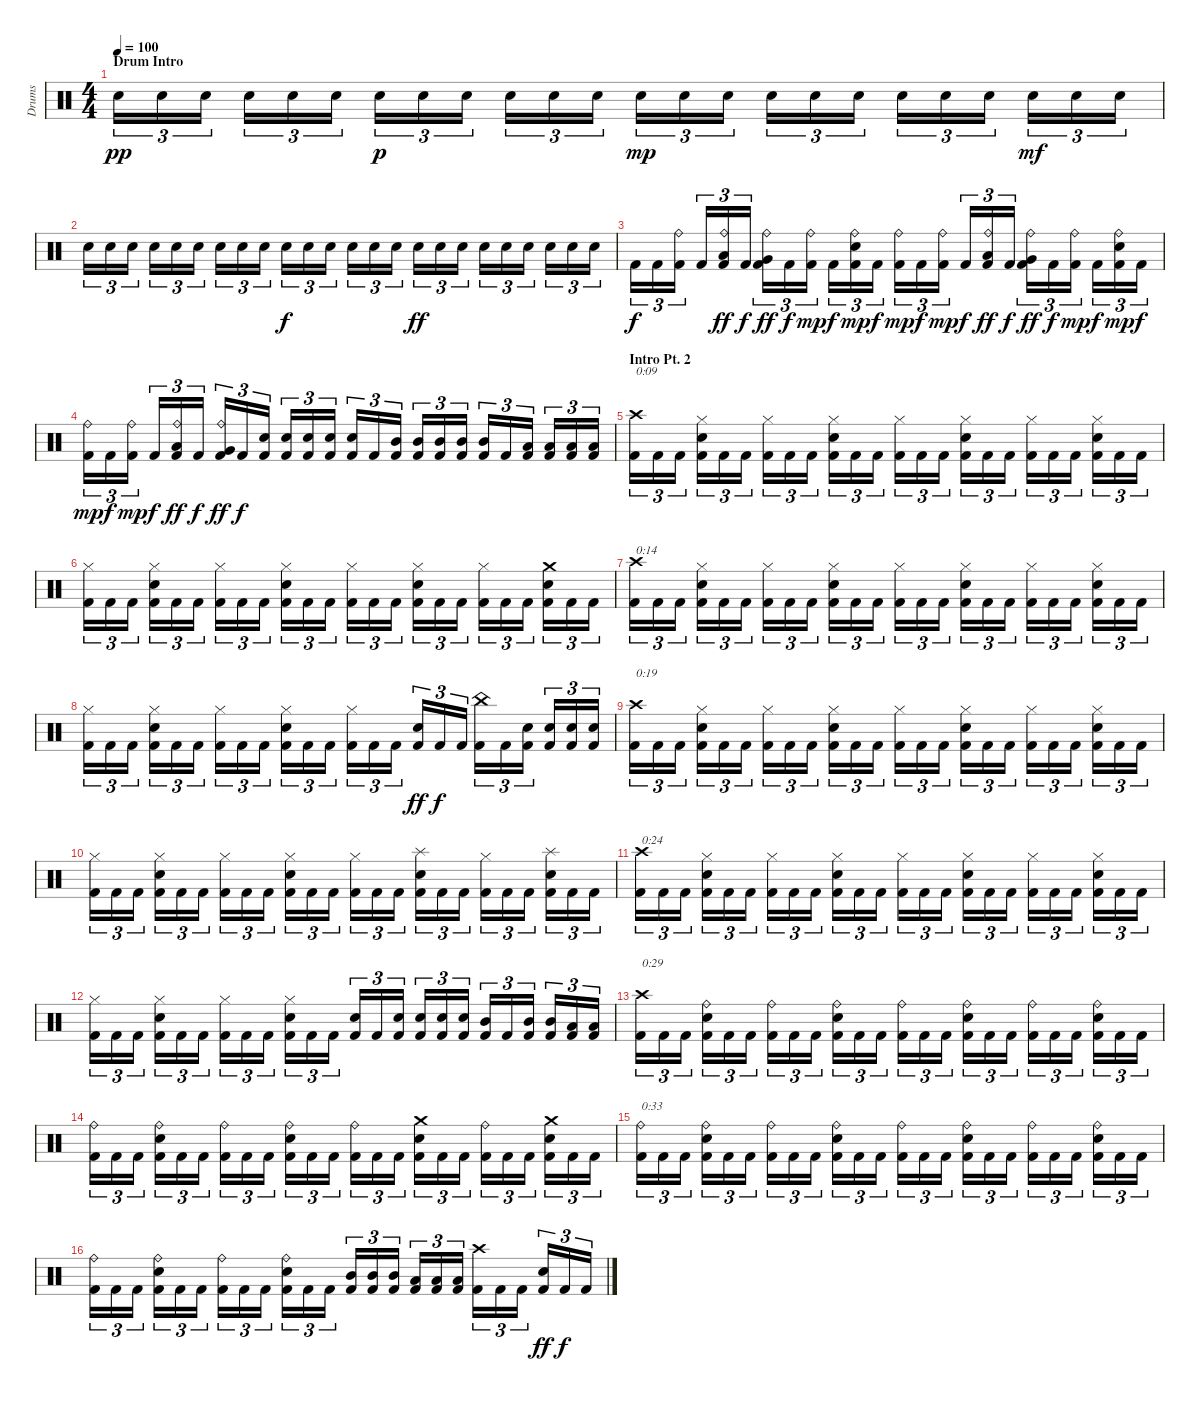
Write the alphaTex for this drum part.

\track ("Drums" "Drums") {instrument percussion}
\staff {score}
\articulation defaults
\ts (4 4)
\section ("" "Drum Intro")
\tempo 100
\clef neutral
\ks c "Snare (hit) 2".16{tu (3 2) dy pp} "Snare (hit) 2".16{tu (3 2)} "Snare (hit) 2".16{tu (3 2)} "Snare (hit) 2".16{tu (3 2)} "Snare (hit) 2".16{tu (3 2)} "Snare (hit) 2".16{tu (3 2)} "Snare (hit) 2".16{tu (3 2) dy p} "Snare (hit) 2".16{tu (3 2)} "Snare (hit) 2".16{tu (3 2)} "Snare (hit) 2".16{tu (3 2)} "Snare (hit) 2".16{tu (3 2)} "Snare (hit) 2".16{tu (3 2)} "Snare (hit) 2".16{tu (3 2) dy mp} "Snare (hit) 2".16{tu (3 2)} "Snare (hit) 2".16{tu (3 2)} "Snare (hit) 2".16{tu (3 2)} "Snare (hit) 2".16{tu (3 2)} "Snare (hit) 2".16{tu (3 2)} "Snare (hit) 2".16{tu (3 2)} "Snare (hit) 2".16{tu (3 2)} "Snare (hit) 2".16{tu (3 2)} "Snare (hit) 2".16{tu (3 2) dy mf} "Snare (hit) 2".16{tu (3 2)} "Snare (hit) 2".16{tu (3 2)}
|
"Snare (hit) 2".16{tu (3 2)} "Snare (hit) 2".16{tu (3 2)} "Snare (hit) 2".16{tu (3 2)} "Snare (hit) 2".16{tu (3 2)} "Snare (hit) 2".16{tu (3 2)} "Snare (hit) 2".16{tu (3 2)} "Snare (hit) 2".16{tu (3 2)} "Snare (hit) 2".16{tu (3 2)} "Snare (hit) 2".16{tu (3 2)} "Snare (hit) 2".16{tu (3 2) dy f} "Snare (hit) 2".16{tu (3 2)} "Snare (hit) 2".16{tu (3 2)} "Snare (hit) 2".16{tu (3 2)} "Snare (hit) 2".16{tu (3 2)} "Snare (hit) 2".16{tu (3 2)} "Snare (hit) 2".16{tu (3 2) dy ff} "Snare (hit) 2".16{tu (3 2)} "Snare (hit) 2".16{tu (3 2)} "Snare (hit) 2".16{tu (3 2)} "Snare (hit) 2".16{tu (3 2)} "Snare (hit) 2".16{tu (3 2)} "Snare (hit) 2".16{tu (3 2)} "Snare (hit) 2".16{tu (3 2)} "Snare (hit) 2".16{tu (3 2)} |
"Kick (hit) 2".16{tu (3 2) dy f} "Kick (hit) 2".16{tu (3 2)} ("Ride (bell)" "Kick (hit) 2").16{tu (3 2)} "Kick (hit) 2".16{tu (3 2)} ("Ride (bell)" "Low Tom (hit)" "Kick (hit) 2").16{tu (3 2) dy ff} "Kick (hit) 2".16{tu (3 2) dy f} ("Ride (bell)" "Very Low Tom (hit)" "Kick (hit) 2").16{tu (3 2) dy ff} "Kick (hit) 2".16{tu (3 2) dy f} ("Ride (bell)" "Kick (hit) 2").16{tu (3 2) dy mp} "Kick (hit) 2".16{tu (3 2) dy f} ("Ride (bell)" "Snare (hit) 2" "Kick (hit) 2").16{tu (3 2) dy mp} "Kick (hit) 2".16{tu (3 2) dy f} ("Ride (bell)" "Kick (hit) 2").16{tu (3 2) dy mp} "Kick (hit) 2".16{tu (3 2) dy f} ("Ride (bell)" "Kick (hit) 2").16{tu (3 2) dy mp} "Kick (hit) 2".16{tu (3 2) dy f} ("Ride (bell)" "Low Tom (hit)" "Kick (hit) 2").16{tu (3 2) dy ff} "Kick (hit) 2".16{tu (3 2) dy f} ("Ride (bell)" "Very Low Tom (hit)" "Kick (hit) 2").16{tu (3 2) dy ff} "Kick (hit) 2".16{tu (3 2) dy f} ("Ride (bell)" "Kick (hit) 2").16{tu (3 2) dy mp} "Kick (hit) 2".16{tu (3 2) dy f} ("Ride (bell)" "Snare (hit) 2" "Kick (hit) 2").16{tu (3 2) dy mp} "Kick (hit) 2".16{tu (3 2) dy f} |
("Ride (bell)" "Kick (hit) 2").16{tu (3 2) dy mp} "Kick (hit) 2".16{tu (3 2) dy f} ("Ride (bell)" "Kick (hit) 2").16{tu (3 2) dy mp} "Kick (hit) 2".16{tu (3 2) dy f} ("Ride (bell)" "Low Tom (hit)" "Kick (hit) 2").16{tu (3 2) dy ff} "Kick (hit) 2".16{tu (3 2) dy f} ("Ride (bell)" "Very Low Tom (hit)" "Kick (hit) 2").16{tu (3 2) dy ff} "Kick (hit) 2".16{tu (3 2) dy f} ("Snare (hit) 2" "Kick (hit) 2").16{tu (3 2)} ("Snare (hit) 2" "Kick (hit) 2").16{tu (3 2)} ("Snare (hit) 2" "Kick (hit) 2").16{tu (3 2)} ("Snare (hit) 2" "Kick (hit) 2").16{tu (3 2)} ("Snare (hit) 2" "Kick (hit) 2").16{tu (3 2)} "Kick (hit) 2".16{tu (3 2)} ("Mid Tom (hit)" "Kick (hit) 2").16{tu (3 2)} ("Mid Tom (hit)" "Kick (hit) 2").16{tu (3 2)} ("Mid Tom (hit)" "Kick (hit) 2").16{tu (3 2)} ("Mid Tom (hit)" "Kick (hit) 2").16{tu (3 2)} ("Mid Tom (hit)" "Kick (hit) 2").16{tu (3 2)} "Kick (hit) 2".16{tu (3 2)} ("Low Tom (hit)" "Kick (hit) 2").16{tu (3 2)} ("Low Tom (hit)" "Kick (hit) 2").16{tu (3 2)} ("Low Tom (hit)" "Kick (hit) 2").16{tu (3 2)} ("Low Tom (hit)" "Kick (hit) 2").16{tu (3 2)} |
\section ("" "Intro Pt. 2")
("Crash high (hit)" "Kick (hit) 2").16{tu (3 2) txt "0:09"} "Kick (hit) 2".16{tu (3 2)} "Kick (hit) 2".16{tu (3 2)} ("Hi-Hat (closed)" "Snare (hit) 2" "Kick (hit) 2").16{tu (3 2)} "Kick (hit) 2".16{tu (3 2)} "Kick (hit) 2".16{tu (3 2)} ("Hi-Hat (closed)" "Kick (hit) 2").16{tu (3 2)} "Kick (hit) 2".16{tu (3 2)} "Kick (hit) 2".16{tu (3 2)} ("Hi-Hat (closed)" "Snare (hit) 2" "Kick (hit) 2").16{tu (3 2)} "Kick (hit) 2".16{tu (3 2)} "Kick (hit) 2".16{tu (3 2)} ("Hi-Hat (closed)" "Kick (hit) 2").16{tu (3 2)} "Kick (hit) 2".16{tu (3 2)} "Kick (hit) 2".16{tu (3 2)} ("Hi-Hat (closed)" "Snare (hit) 2" "Kick (hit) 2").16{tu (3 2)} "Kick (hit) 2".16{tu (3 2)} "Kick (hit) 2".16{tu (3 2)} ("Hi-Hat (closed)" "Kick (hit) 2").16{tu (3 2)} "Kick (hit) 2".16{tu (3 2)} "Kick (hit) 2".16{tu (3 2)} ("Hi-Hat (closed)" "Snare (hit) 2" "Kick (hit) 2").16{tu (3 2)} "Kick (hit) 2".16{tu (3 2)} "Kick (hit) 2".16{tu (3 2)} |
("Hi-Hat (closed)" "Kick (hit) 2").16{tu (3 2)} "Kick (hit) 2".16{tu (3 2)} "Kick (hit) 2".16{tu (3 2)} ("Hi-Hat (closed)" "Snare (hit) 2" "Kick (hit) 2").16{tu (3 2)} "Kick (hit) 2".16{tu (3 2)} "Kick (hit) 2".16{tu (3 2)} ("Hi-Hat (closed)" "Kick (hit) 2").16{tu (3 2)} "Kick (hit) 2".16{tu (3 2)} "Kick (hit) 2".16{tu (3 2)} ("Hi-Hat (closed)" "Snare (hit) 2" "Kick (hit) 2").16{tu (3 2)} "Kick (hit) 2".16{tu (3 2)} "Kick (hit) 2".16{tu (3 2)} ("Hi-Hat (closed)" "Kick (hit) 2").16{tu (3 2)} "Kick (hit) 2".16{tu (3 2)} "Kick (hit) 2".16{tu (3 2)} ("Hi-Hat (closed)" "Snare (hit) 2" "Kick (hit) 2").16{tu (3 2)} "Kick (hit) 2".16{tu (3 2)} "Kick (hit) 2".16{tu (3 2)} ("Hi-Hat (closed)" "Kick (hit) 2").16{tu (3 2)} "Kick (hit) 2".16{tu (3 2)} "Kick (hit) 2".16{tu (3 2)} ("Crash medium (hit)" "Snare (hit) 2" "Kick (hit) 2").16{tu (3 2)} "Kick (hit) 2".16{tu (3 2)} "Kick (hit) 2".16{tu (3 2)} |
("Crash high (hit)" "Kick (hit) 2").16{tu (3 2) txt "0:14"} "Kick (hit) 2".16{tu (3 2)} "Kick (hit) 2".16{tu (3 2)} ("Hi-Hat (closed)" "Snare (hit) 2" "Kick (hit) 2").16{tu (3 2)} "Kick (hit) 2".16{tu (3 2)} "Kick (hit) 2".16{tu (3 2)} ("Hi-Hat (closed)" "Kick (hit) 2").16{tu (3 2)} "Kick (hit) 2".16{tu (3 2)} "Kick (hit) 2".16{tu (3 2)} ("Hi-Hat (closed)" "Snare (hit) 2" "Kick (hit) 2").16{tu (3 2)} "Kick (hit) 2".16{tu (3 2)} "Kick (hit) 2".16{tu (3 2)} ("Hi-Hat (closed)" "Kick (hit) 2").16{tu (3 2)} "Kick (hit) 2".16{tu (3 2)} "Kick (hit) 2".16{tu (3 2)} ("Hi-Hat (closed)" "Snare (hit) 2" "Kick (hit) 2").16{tu (3 2)} "Kick (hit) 2".16{tu (3 2)} "Kick (hit) 2".16{tu (3 2)} ("Hi-Hat (closed)" "Kick (hit) 2").16{tu (3 2)} "Kick (hit) 2".16{tu (3 2)} "Kick (hit) 2".16{tu (3 2)} ("Hi-Hat (closed)" "Snare (hit) 2" "Kick (hit) 2").16{tu (3 2)} "Kick (hit) 2".16{tu (3 2)} "Kick (hit) 2".16{tu (3 2)} |
("Hi-Hat (closed)" "Kick (hit) 2").16{tu (3 2)} "Kick (hit) 2".16{tu (3 2)} "Kick (hit) 2".16{tu (3 2)} ("Hi-Hat (closed)" "Snare (hit) 2" "Kick (hit) 2").16{tu (3 2)} "Kick (hit) 2".16{tu (3 2)} "Kick (hit) 2".16{tu (3 2)} ("Hi-Hat (closed)" "Kick (hit) 2").16{tu (3 2)} "Kick (hit) 2".16{tu (3 2)} "Kick (hit) 2".16{tu (3 2)} ("Hi-Hat (closed)" "Snare (hit) 2" "Kick (hit) 2").16{tu (3 2)} "Kick (hit) 2".16{tu (3 2)} "Kick (hit) 2".16{tu (3 2)} ("Hi-Hat (closed)" "Kick (hit) 2").16{tu (3 2)} "Kick (hit) 2".16{tu (3 2)} "Kick (hit) 2".16{tu (3 2)} ("Snare (hit) 2" "Kick (hit) 2").16{tu (3 2) dy ff} "Kick (hit) 2".16{tu (3 2) dy f} "Kick (hit) 2".16{tu (3 2)} ("China (hit)" "Kick (hit) 2").16{tu (3 2)} "Kick (hit) 2".16{tu (3 2)} ("Snare (hit) 2" "Kick (hit) 2").16{tu (3 2)} ("Snare (hit) 2" "Kick (hit) 2").16{tu (3 2)} ("Snare (hit) 2" "Kick (hit) 2").16{tu (3 2)} ("Snare (hit) 2" "Kick (hit) 2").16{tu (3 2)} |
("Crash high (hit)" "Kick (hit) 2").16{tu (3 2) txt "0:19"} "Kick (hit) 2".16{tu (3 2)} "Kick (hit) 2".16{tu (3 2)} ("Hi-Hat (closed)" "Snare (hit) 2" "Kick (hit) 2").16{tu (3 2)} "Kick (hit) 2".16{tu (3 2)} "Kick (hit) 2".16{tu (3 2)} ("Hi-Hat (closed)" "Kick (hit) 2").16{tu (3 2)} "Kick (hit) 2".16{tu (3 2)} "Kick (hit) 2".16{tu (3 2)} ("Hi-Hat (closed)" "Snare (hit) 2" "Kick (hit) 2").16{tu (3 2)} "Kick (hit) 2".16{tu (3 2)} "Kick (hit) 2".16{tu (3 2)} ("Hi-Hat (closed)" "Kick (hit) 2").16{tu (3 2)} "Kick (hit) 2".16{tu (3 2)} "Kick (hit) 2".16{tu (3 2)} ("Hi-Hat (closed)" "Snare (hit) 2" "Kick (hit) 2").16{tu (3 2)} "Kick (hit) 2".16{tu (3 2)} "Kick (hit) 2".16{tu (3 2)} ("Hi-Hat (closed)" "Kick (hit) 2").16{tu (3 2)} "Kick (hit) 2".16{tu (3 2)} "Kick (hit) 2".16{tu (3 2)} ("Hi-Hat (closed)" "Snare (hit) 2" "Kick (hit) 2").16{tu (3 2)} "Kick (hit) 2".16{tu (3 2)} "Kick (hit) 2".16{tu (3 2)} |
("Hi-Hat (closed)" "Kick (hit) 2").16{tu (3 2)} "Kick (hit) 2".16{tu (3 2)} "Kick (hit) 2".16{tu (3 2)} ("Hi-Hat (closed)" "Snare (hit) 2" "Kick (hit) 2").16{tu (3 2)} "Kick (hit) 2".16{tu (3 2)} "Kick (hit) 2".16{tu (3 2)} ("Hi-Hat (closed)" "Kick (hit) 2").16{tu (3 2)} "Kick (hit) 2".16{tu (3 2)} "Kick (hit) 2".16{tu (3 2)} ("Hi-Hat (closed)" "Snare (hit) 2" "Kick (hit) 2").16{tu (3 2)} "Kick (hit) 2".16{tu (3 2)} "Kick (hit) 2".16{tu (3 2)} ("Hi-Hat (closed)" "Kick (hit) 2").16{tu (3 2)} "Kick (hit) 2".16{tu (3 2)} "Kick (hit) 2".16{tu (3 2)} ("Splash (hit)" "Snare (hit) 2" "Kick (hit) 2").16{tu (3 2)} "Kick (hit) 2".16{tu (3 2)} "Kick (hit) 2".16{tu (3 2)} ("Hi-Hat (closed)" "Kick (hit) 2").16{tu (3 2)} "Kick (hit) 2".16{tu (3 2)} "Kick (hit) 2".16{tu (3 2)} ("Splash (hit)" "Snare (hit) 2" "Kick (hit) 2").16{tu (3 2)} "Kick (hit) 2".16{tu (3 2)} "Kick (hit) 2".16{tu (3 2)} |
("Crash high (hit)" "Kick (hit) 2").16{tu (3 2) txt "0:24"} "Kick (hit) 2".16{tu (3 2)} "Kick (hit) 2".16{tu (3 2)} ("Hi-Hat (closed)" "Snare (hit) 2" "Kick (hit) 2").16{tu (3 2)} "Kick (hit) 2".16{tu (3 2)} "Kick (hit) 2".16{tu (3 2)} ("Hi-Hat (closed)" "Kick (hit) 2").16{tu (3 2)} "Kick (hit) 2".16{tu (3 2)} "Kick (hit) 2".16{tu (3 2)} ("Hi-Hat (closed)" "Snare (hit) 2" "Kick (hit) 2").16{tu (3 2)} "Kick (hit) 2".16{tu (3 2)} "Kick (hit) 2".16{tu (3 2)} ("Hi-Hat (closed)" "Kick (hit) 2").16{tu (3 2)} "Kick (hit) 2".16{tu (3 2)} "Kick (hit) 2".16{tu (3 2)} ("Hi-Hat (closed)" "Snare (hit) 2" "Kick (hit) 2").16{tu (3 2)} "Kick (hit) 2".16{tu (3 2)} "Kick (hit) 2".16{tu (3 2)} ("Hi-Hat (closed)" "Kick (hit) 2").16{tu (3 2)} "Kick (hit) 2".16{tu (3 2)} "Kick (hit) 2".16{tu (3 2)} ("Hi-Hat (closed)" "Snare (hit) 2" "Kick (hit) 2").16{tu (3 2)} "Kick (hit) 2".16{tu (3 2)} "Kick (hit) 2".16{tu (3 2)} |
("Hi-Hat (closed)" "Kick (hit) 2").16{tu (3 2)} "Kick (hit) 2".16{tu (3 2)} "Kick (hit) 2".16{tu (3 2)} ("Hi-Hat (closed)" "Snare (hit) 2" "Kick (hit) 2").16{tu (3 2)} "Kick (hit) 2".16{tu (3 2)} "Kick (hit) 2".16{tu (3 2)} ("Hi-Hat (closed)" "Kick (hit) 2").16{tu (3 2)} "Kick (hit) 2".16{tu (3 2)} "Kick (hit) 2".16{tu (3 2)} ("Hi-Hat (closed)" "Snare (hit) 2" "Kick (hit) 2").16{tu (3 2)} "Kick (hit) 2".16{tu (3 2)} "Kick (hit) 2".16{tu (3 2)} ("Snare (hit) 2" "Kick (hit) 2").16{tu (3 2)} "Kick (hit) 2".16{tu (3 2)} ("Snare (hit) 2" "Kick (hit) 2").16{tu (3 2)} ("Snare (hit) 2" "Kick (hit) 2").16{tu (3 2)} ("Snare (hit) 2" "Kick (hit) 2").16{tu (3 2)} ("Snare (hit) 2" "Kick (hit) 2").16{tu (3 2)} ("Mid Tom (hit)" "Kick (hit) 2").16{tu (3 2)} "Kick (hit) 2".16{tu (3 2)} ("Mid Tom (hit)" "Kick (hit) 2").16{tu (3 2)} ("Mid Tom (hit)" "Kick (hit) 2").16{tu (3 2)} ("Low Tom (hit)" "Kick (hit) 2").16{tu (3 2)} ("Low Tom (hit)" "Kick (hit) 2").16{tu (3 2)} |
("Crash high (hit)" "Kick (hit) 2").16{tu (3 2) txt "0:29"} "Kick (hit) 2".16{tu (3 2)} "Kick (hit) 2".16{tu (3 2)} ("Ride (bell)" "Snare (hit) 2" "Kick (hit) 2").16{tu (3 2)} "Kick (hit) 2".16{tu (3 2)} "Kick (hit) 2".16{tu (3 2)} ("Ride (bell)" "Kick (hit) 2").16{tu (3 2)} "Kick (hit) 2".16{tu (3 2)} "Kick (hit) 2".16{tu (3 2)} ("Ride (bell)" "Snare (hit) 2" "Kick (hit) 2").16{tu (3 2)} "Kick (hit) 2".16{tu (3 2)} "Kick (hit) 2".16{tu (3 2)} ("Ride (bell)" "Kick (hit) 2").16{tu (3 2)} "Kick (hit) 2".16{tu (3 2)} "Kick (hit) 2".16{tu (3 2)} ("Ride (bell)" "Snare (hit) 2" "Kick (hit) 2").16{tu (3 2)} "Kick (hit) 2".16{tu (3 2)} "Kick (hit) 2".16{tu (3 2)} ("Ride (bell)" "Kick (hit) 2").16{tu (3 2)} "Kick (hit) 2".16{tu (3 2)} "Kick (hit) 2".16{tu (3 2)} ("Ride (bell)" "Snare (hit) 2" "Kick (hit) 2").16{tu (3 2)} "Kick (hit) 2".16{tu (3 2)} "Kick (hit) 2".16{tu (3 2)} |
("Ride (bell)" "Kick (hit) 2").16{tu (3 2)} "Kick (hit) 2".16{tu (3 2)} "Kick (hit) 2".16{tu (3 2)} ("Ride (bell)" "Snare (hit) 2" "Kick (hit) 2").16{tu (3 2)} "Kick (hit) 2".16{tu (3 2)} "Kick (hit) 2".16{tu (3 2)} ("Ride (bell)" "Kick (hit) 2").16{tu (3 2)} "Kick (hit) 2".16{tu (3 2)} "Kick (hit) 2".16{tu (3 2)} ("Ride (bell)" "Snare (hit) 2" "Kick (hit) 2").16{tu (3 2)} "Kick (hit) 2".16{tu (3 2)} "Kick (hit) 2".16{tu (3 2)} ("Ride (bell)" "Kick (hit) 2").16{tu (3 2)} "Kick (hit) 2".16{tu (3 2)} "Kick (hit) 2".16{tu (3 2)} ("Crash medium (hit)" "Snare (hit) 2" "Kick (hit) 2").16{tu (3 2)} "Kick (hit) 2".16{tu (3 2)} "Kick (hit) 2".16{tu (3 2)} ("Ride (bell)" "Kick (hit) 2").16{tu (3 2)} "Kick (hit) 2".16{tu (3 2)} "Kick (hit) 2".16{tu (3 2)} ("Crash medium (hit)" "Snare (hit) 2" "Kick (hit) 2").16{tu (3 2)} "Kick (hit) 2".16{tu (3 2)} "Kick (hit) 2".16{tu (3 2)} |
("Ride (bell)" "Kick (hit) 2").16{tu (3 2) txt "0:33"} "Kick (hit) 2".16{tu (3 2)} "Kick (hit) 2".16{tu (3 2)} ("Ride (bell)" "Snare (hit) 2" "Kick (hit) 2").16{tu (3 2)} "Kick (hit) 2".16{tu (3 2)} "Kick (hit) 2".16{tu (3 2)} ("Ride (bell)" "Kick (hit) 2").16{tu (3 2)} "Kick (hit) 2".16{tu (3 2)} "Kick (hit) 2".16{tu (3 2)} ("Ride (bell)" "Snare (hit) 2" "Kick (hit) 2").16{tu (3 2)} "Kick (hit) 2".16{tu (3 2)} "Kick (hit) 2".16{tu (3 2)} ("Ride (bell)" "Kick (hit) 2").16{tu (3 2)} "Kick (hit) 2".16{tu (3 2)} "Kick (hit) 2".16{tu (3 2)} ("Ride (bell)" "Snare (hit) 2" "Kick (hit) 2").16{tu (3 2)} "Kick (hit) 2".16{tu (3 2)} "Kick (hit) 2".16{tu (3 2)} ("Ride (bell)" "Kick (hit) 2").16{tu (3 2)} "Kick (hit) 2".16{tu (3 2)} "Kick (hit) 2".16{tu (3 2)} ("Ride (bell)" "Snare (hit) 2" "Kick (hit) 2").16{tu (3 2)} "Kick (hit) 2".16{tu (3 2)} "Kick (hit) 2".16{tu (3 2)} |
("Ride (bell)" "Kick (hit) 2").16{tu (3 2)} "Kick (hit) 2".16{tu (3 2)} "Kick (hit) 2".16{tu (3 2)} ("Ride (bell)" "Snare (hit) 2" "Kick (hit) 2").16{tu (3 2)} "Kick (hit) 2".16{tu (3 2)} "Kick (hit) 2".16{tu (3 2)} ("Ride (bell)" "Kick (hit) 2").16{tu (3 2)} "Kick (hit) 2".16{tu (3 2)} "Kick (hit) 2".16{tu (3 2)} ("Ride (bell)" "Snare (hit) 2" "Kick (hit) 2").16{tu (3 2)} "Kick (hit) 2".16{tu (3 2)} "Kick (hit) 2".16{tu (3 2)} ("Mid Tom (hit)" "Kick (hit) 2").16{tu (3 2)} ("Mid Tom (hit)" "Kick (hit) 2").16{tu (3 2)} ("Mid Tom (hit)" "Kick (hit) 2").16{tu (3 2)} ("Low Tom (hit)" "Kick (hit) 2").16{tu (3 2)} ("Low Tom (hit)" "Kick (hit) 2").16{tu (3 2)} ("Low Tom (hit)" "Kick (hit) 2").16{tu (3 2)} ("Crash high (hit)" "Kick (hit) 2").16{tu (3 2)} "Kick (hit) 2".16{tu (3 2)} "Kick (hit) 2".16{tu (3 2)} ("Snare (hit) 2" "Kick (hit) 2").16{tu (3 2) dy ff} "Kick (hit) 2".16{tu (3 2) dy f} "Kick (hit) 2".16{tu (3 2)}
